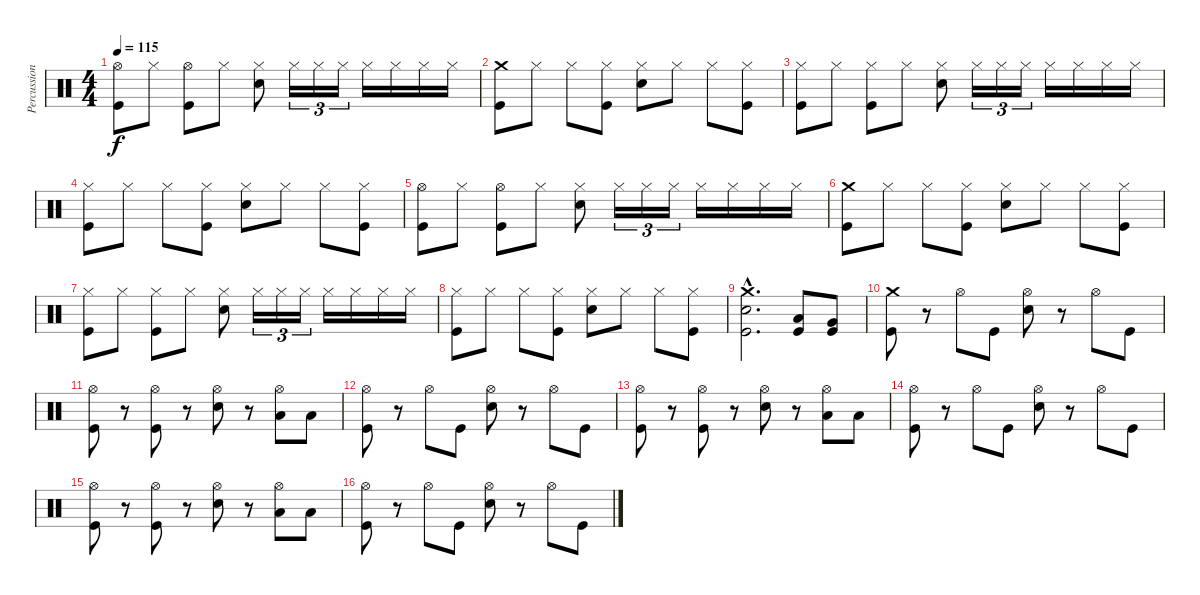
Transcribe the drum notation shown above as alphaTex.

\track ("Percussion" "Percussion") {instrument percussion}
\staff {score}
\articulation defaults
\ts (4 4)
\tempo 115
\clef neutral
\ks c
("Hi-Hat (open)" "Kick (hit)").8{dy f} "Hi-Hat (closed)".8 ("Hi-Hat (open)" "Kick (hit)").8 "Hi-Hat (closed)".8 ("Hi-Hat (closed)" "Snare (hit) 2").8 "Hi-Hat (closed)".16{tu (3 2)} "Hi-Hat (closed)".16{tu (3 2)} "Hi-Hat (closed)".16{tu (3 2)} "Hi-Hat (closed)".16 "Hi-Hat (closed)".16 "Hi-Hat (closed)".16 "Hi-Hat (closed)".16 |
("Crash medium (hit)" "Kick (hit)").8 "Hi-Hat (closed)".8 "Hi-Hat (closed)".8 ("Hi-Hat (closed)" "Kick (hit)").8 ("Hi-Hat (closed)" "Snare (hit) 2").8 "Hi-Hat (closed)".8 "Hi-Hat (closed)".8 ("Hi-Hat (closed)" "Kick (hit)").8 |
("Hi-Hat (closed)" "Kick (hit)").8 "Hi-Hat (closed)".8 ("Hi-Hat (closed)" "Kick (hit)").8 "Hi-Hat (closed)".8 ("Hi-Hat (closed)" "Snare (hit) 2").8 "Hi-Hat (closed)".16{tu (3 2)} "Hi-Hat (closed)".16{tu (3 2)} "Hi-Hat (closed)".16{tu (3 2)} "Hi-Hat (closed)".16 "Hi-Hat (closed)".16 "Hi-Hat (closed)".16 "Hi-Hat (closed)".16 |
("Hi-Hat (closed)" "Kick (hit)").8 "Hi-Hat (closed)".8 "Hi-Hat (closed)".8 ("Hi-Hat (closed)" "Kick (hit)").8 ("Hi-Hat (closed)" "Snare (hit) 2").8 "Hi-Hat (closed)".8 "Hi-Hat (closed)".8 ("Hi-Hat (closed)" "Kick (hit)").8 |
("Hi-Hat (open)" "Kick (hit)").8 "Hi-Hat (closed)".8 ("Hi-Hat (open)" "Kick (hit)").8 "Hi-Hat (closed)".8 ("Hi-Hat (closed)" "Snare (hit) 2").8 "Hi-Hat (closed)".16{tu (3 2)} "Hi-Hat (closed)".16{tu (3 2)} "Hi-Hat (closed)".16{tu (3 2)} "Hi-Hat (closed)".16 "Hi-Hat (closed)".16 "Hi-Hat (closed)".16 "Hi-Hat (closed)".16 |
("Crash medium (hit)" "Kick (hit)").8 "Hi-Hat (closed)".8 "Hi-Hat (closed)".8 ("Hi-Hat (closed)" "Kick (hit)").8 ("Hi-Hat (closed)" "Snare (hit) 2").8 "Hi-Hat (closed)".8 "Hi-Hat (closed)".8 ("Hi-Hat (closed)" "Kick (hit)").8 |
("Hi-Hat (closed)" "Kick (hit)").8 "Hi-Hat (closed)".8 ("Hi-Hat (closed)" "Kick (hit)").8 "Hi-Hat (closed)".8 ("Hi-Hat (closed)" "Snare (hit) 2").8 "Hi-Hat (closed)".16{tu (3 2)} "Hi-Hat (closed)".16{tu (3 2)} "Hi-Hat (closed)".16{tu (3 2)} "Hi-Hat (closed)".16 "Hi-Hat (closed)".16 "Hi-Hat (closed)".16 "Hi-Hat (closed)".16 |
("Hi-Hat (closed)" "Kick (hit)").8 "Hi-Hat (closed)".8 "Hi-Hat (closed)".8 ("Hi-Hat (closed)" "Kick (hit)").8 ("Hi-Hat (closed)" "Snare (hit) 2").8 "Hi-Hat (closed)".8 "Hi-Hat (closed)".8 ("Hi-Hat (closed)" "Kick (hit)").8 |
("Crash medium (hit)"{hac} "Snare (hit) 2"{hac} "Kick (hit)"{hac}).2{d} ("Low Tom (hit)" "Kick (hit)").8 ("Very Low Tom (hit)" "Kick (hit)").8 |
("Crash medium (hit)" "Kick (hit)").8 r.8 "Hi-Hat (open)".8 "Kick (hit)".8 ("Hi-Hat (open)" "Snare (hit) 2").8 r.8 "Hi-Hat (open)".8 "Kick (hit)".8 |
("Hi-Hat (open)" "Kick (hit)").8 r.8 ("Hi-Hat (open)" "Kick (hit)").8 r.8 ("Hi-Hat (open)" "Snare (hit) 2").8 r.8 ("Hi-Hat (open)" "Low Tom (hit)").8 "Low Tom (hit)".8 |
("Hi-Hat (open)" "Kick (hit)").8 r.8 "Hi-Hat (open)".8 "Kick (hit)".8 ("Hi-Hat (open)" "Snare (hit) 2").8 r.8 "Hi-Hat (open)".8 "Kick (hit)".8 |
("Hi-Hat (open)" "Kick (hit)").8 r.8 ("Hi-Hat (open)" "Kick (hit)").8 r.8 ("Hi-Hat (open)" "Snare (hit) 2").8 r.8 ("Hi-Hat (open)" "Low Tom (hit)").8 "Low Tom (hit)".8 |
("Hi-Hat (open)" "Kick (hit)").8 r.8 "Hi-Hat (open)".8 "Kick (hit)".8 ("Hi-Hat (open)" "Snare (hit) 2").8 r.8 "Hi-Hat (open)".8 "Kick (hit)".8 |
("Hi-Hat (open)" "Kick (hit)").8 r.8 ("Hi-Hat (open)" "Kick (hit)").8 r.8 ("Hi-Hat (open)" "Snare (hit) 2").8 r.8 ("Hi-Hat (open)" "Low Tom (hit)").8 "Low Tom (hit)".8 |
("Hi-Hat (open)" "Kick (hit)").8 r.8 "Hi-Hat (open)".8 "Kick (hit)".8 ("Hi-Hat (open)" "Snare (hit) 2").8 r.8 "Hi-Hat (open)".8 "Kick (hit)".8
